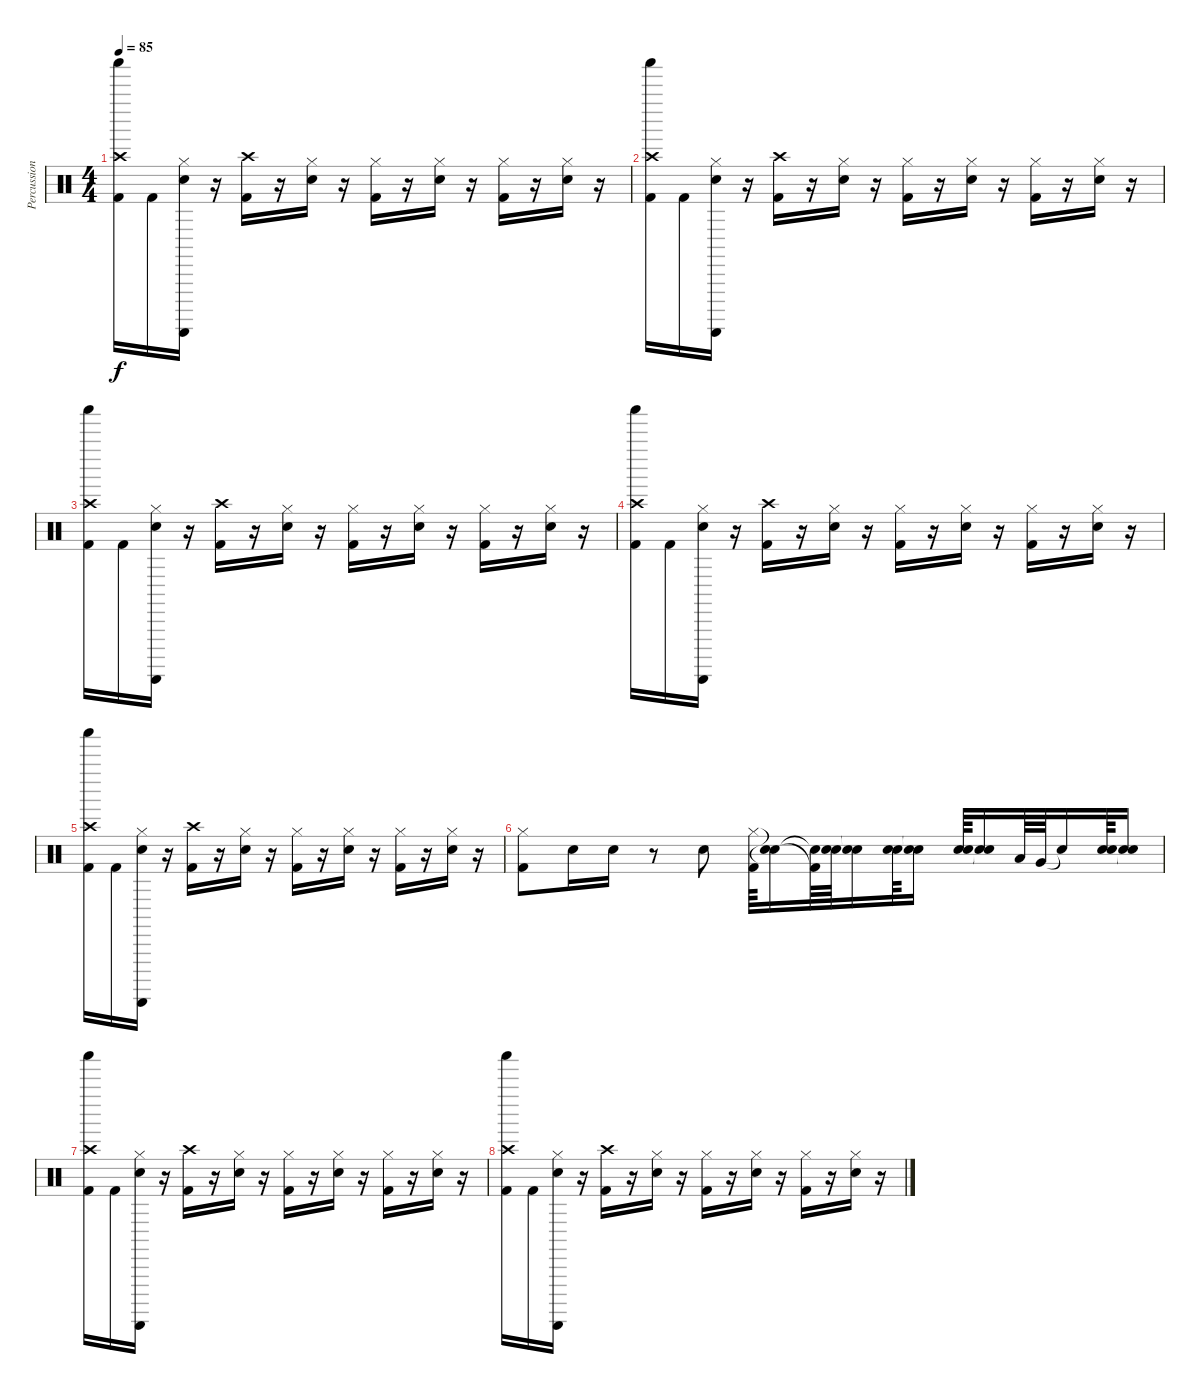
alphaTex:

\track ("Percussioni" "Percussion") {instrument percussion}
\staff {score}
\articulation defaults
\ts (4 4)
\tempo 85
\clef neutral
\ks c
("Shaker (hit)" "Crash high (hit)" "Kick (hit) 2").16{dy f} "Kick (hit) 2".16 ("Hi-Hat (closed)" "Guiro (scrap-return)" "Electric Snare (hit)").16 r.16 ("Crash high (hit)" "Kick (hit) 2").16 r.16 ("Hi-Hat (closed)" "Electric Snare (hit)").16 r.16 ("Hi-Hat (closed)" "Kick (hit) 2").16 r.16 ("Hi-Hat (closed)" "Electric Snare (hit)").16 r.16 ("Hi-Hat (closed)" "Kick (hit) 2").16 r.16 ("Hi-Hat (closed)" "Electric Snare (hit)").16 r.16 |
("Shaker (hit)" "Crash high (hit)" "Kick (hit) 2").16 "Kick (hit) 2".16 ("Hi-Hat (closed)" "Guiro (scrap-return)" "Electric Snare (hit)").16 r.16 ("Crash high (hit)" "Kick (hit) 2").16 r.16 ("Hi-Hat (closed)" "Electric Snare (hit)").16 r.16 ("Hi-Hat (closed)" "Kick (hit) 2").16 r.16 ("Hi-Hat (closed)" "Electric Snare (hit)").16 r.16 ("Hi-Hat (closed)" "Kick (hit) 2").16 r.16 ("Hi-Hat (closed)" "Electric Snare (hit)").16 r.16 |
("Shaker (hit)" "Crash high (hit)" "Kick (hit) 2").16 "Kick (hit) 2".16 ("Hi-Hat (closed)" "Guiro (scrap-return)" "Electric Snare (hit)").16 r.16 ("Crash high (hit)" "Kick (hit) 2").16 r.16 ("Hi-Hat (closed)" "Electric Snare (hit)").16 r.16 ("Hi-Hat (closed)" "Kick (hit) 2").16 r.16 ("Hi-Hat (closed)" "Electric Snare (hit)").16 r.16 ("Hi-Hat (closed)" "Kick (hit) 2").16 r.16 ("Hi-Hat (closed)" "Electric Snare (hit)").16 r.16 |
("Shaker (hit)" "Crash high (hit)" "Kick (hit) 2").16 "Kick (hit) 2".16 ("Hi-Hat (closed)" "Guiro (scrap-return)" "Electric Snare (hit)").16 r.16 ("Crash high (hit)" "Kick (hit) 2").16 r.16 ("Hi-Hat (closed)" "Electric Snare (hit)").16 r.16 ("Hi-Hat (closed)" "Kick (hit) 2").16 r.16 ("Hi-Hat (closed)" "Electric Snare (hit)").16 r.16 ("Hi-Hat (closed)" "Kick (hit) 2").16 r.16 ("Hi-Hat (closed)" "Electric Snare (hit)").16 r.16 |
("Shaker (hit)" "Crash high (hit)" "Kick (hit) 2").16 "Kick (hit) 2".16 ("Hi-Hat (closed)" "Guiro (scrap-return)" "Electric Snare (hit)").16 r.16 ("Crash high (hit)" "Kick (hit) 2").16 r.16 ("Hi-Hat (closed)" "Electric Snare (hit)").16 r.16 ("Hi-Hat (closed)" "Kick (hit) 2").16 r.16 ("Hi-Hat (closed)" "Electric Snare (hit)").16 r.16 ("Hi-Hat (closed)" "Kick (hit) 2").16 r.16 ("Hi-Hat (closed)" "Electric Snare (hit)").16 r.16 |
("Hi-Hat (closed)" "Kick (hit) 2").8 "Snare (hit) 2".16 "Snare (hit) 2".16 r.8 "Snare (hit) 2".8 ("Hi-Hat (closed)" "Kick (hit) 2").64 ("Snare (hit)"{t} "Snare (hit)"{t}).16 ("Snare (hit)"{t} "Kick (hit) 2"{t}).64 ("Electric Snare (hit)" "Snare (hit) 2").64 ("Snare (hit)"{t} "Electric Snare (hit)"{t}).16 ("Electric Snare (hit)" "Snare (hit) 2").64 ("Snare (hit)"{t} "Snare (hit)"{t}).16 ("Electric Snare (hit)" "Snare (hit) 2").64 ("Snare (hit)"{t} "Snare (hit)"{t}).16 "Low Floor Tom (hit)".64 "Very Low Tom (hit)".64 "Snare (hit)"{t}.16 ("Electric Snare (hit)" "Snare (hit) 2").64 ("Snare (hit)"{t} "Snare (hit)"{t}).16 |
("Shaker (hit)" "Crash high (hit)" "Kick (hit) 2").16 "Kick (hit) 2".16 ("Hi-Hat (closed)" "Guiro (scrap-return)" "Electric Snare (hit)").16 r.16 ("Crash high (hit)" "Kick (hit) 2").16 r.16 ("Hi-Hat (closed)" "Electric Snare (hit)").16 r.16 ("Hi-Hat (closed)" "Kick (hit) 2").16 r.16 ("Hi-Hat (closed)" "Electric Snare (hit)").16 r.16 ("Hi-Hat (closed)" "Kick (hit) 2").16 r.16 ("Hi-Hat (closed)" "Electric Snare (hit)").16 r.16 |
("Shaker (hit)" "Crash high (hit)" "Kick (hit) 2").16 "Kick (hit) 2".16 ("Hi-Hat (closed)" "Guiro (scrap-return)" "Electric Snare (hit)").16 r.16 ("Crash high (hit)" "Kick (hit) 2").16 r.16 ("Hi-Hat (closed)" "Electric Snare (hit)").16 r.16 ("Hi-Hat (closed)" "Kick (hit) 2").16 r.16 ("Hi-Hat (closed)" "Electric Snare (hit)").16 r.16 ("Hi-Hat (closed)" "Kick (hit) 2").16 r.16 ("Hi-Hat (closed)" "Electric Snare (hit)").16 r.16
